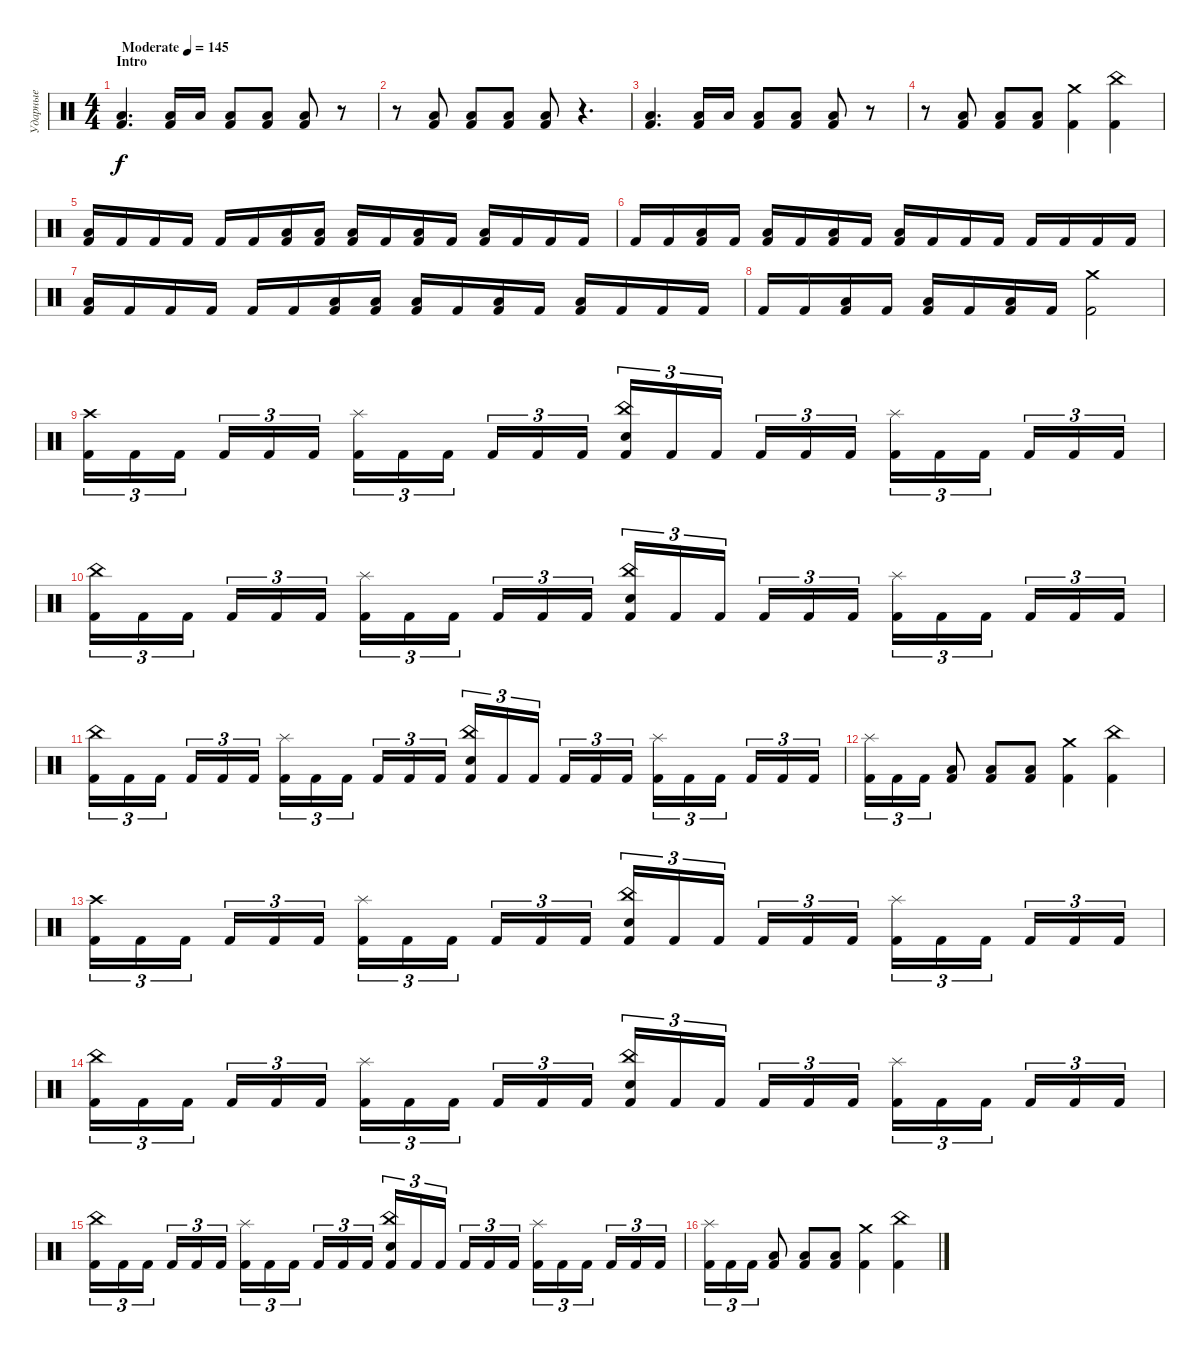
\track ("Ударные" "Ударные") {instrument percussion}
\staff {score}
\articulation defaults
\ts (4 4)
\section ("" "Intro")
\tempo (145 "Moderate")
\clef neutral
\ks c
("Low Tom (hit)" "Kick (hit) 2").4{d dy f} ("Low Tom (hit)" "Kick (hit) 2").16 "Low Tom (hit)".16 ("Low Tom (hit)" "Kick (hit) 2").8 ("Low Tom (hit)" "Kick (hit) 2").8 ("Low Tom (hit)" "Kick (hit) 2").8 r.8 |
r.8 ("Low Tom (hit)" "Kick (hit) 2").8 ("Low Tom (hit)" "Kick (hit) 2").8 ("Low Tom (hit)" "Kick (hit) 2").8 ("Low Tom (hit)" "Kick (hit) 2").8 r.4{d} |
("Low Tom (hit)" "Kick (hit) 2").4{d} ("Low Tom (hit)" "Kick (hit) 2").16 "Low Tom (hit)".16 ("Low Tom (hit)" "Kick (hit) 2").8 ("Low Tom (hit)" "Kick (hit) 2").8 ("Low Tom (hit)" "Kick (hit) 2").8 r.8 |
r.8 ("Low Tom (hit)" "Kick (hit) 2").8 ("Low Tom (hit)" "Kick (hit) 2").8 ("Low Tom (hit)" "Kick (hit) 2").8 ("Crash medium (hit)" "Kick (hit) 2").4 ("China (hit)" "Kick (hit) 2").4 |
("Low Tom (hit)" "Kick (hit) 2").16 "Kick (hit) 2".16 "Kick (hit) 2".16 "Kick (hit) 2".16 "Kick (hit) 2".16 "Kick (hit) 2".16 ("Low Tom (hit)" "Kick (hit) 2").16 ("Low Tom (hit)" "Kick (hit) 2").16 ("Low Tom (hit)" "Kick (hit) 2").16 "Kick (hit) 2".16 ("Low Tom (hit)" "Kick (hit) 2").16 "Kick (hit) 2".16 ("Low Tom (hit)" "Kick (hit) 2").16 "Kick (hit) 2".16 "Kick (hit) 2".16 "Kick (hit) 2".16 |
"Kick (hit) 2".16 "Kick (hit) 2".16 ("Low Tom (hit)" "Kick (hit) 2").16 "Kick (hit) 2".16 ("Low Tom (hit)" "Kick (hit) 2").16 "Kick (hit) 2".16 ("Low Tom (hit)" "Kick (hit) 2").16 "Kick (hit) 2".16 ("Low Tom (hit)" "Kick (hit) 2").16 "Kick (hit) 2".16 "Kick (hit) 2".16 "Kick (hit) 2".16 "Kick (hit) 2".16 "Kick (hit) 2".16 "Kick (hit) 2".16 "Kick (hit) 2".16 |
("Low Tom (hit)" "Kick (hit) 2").16 "Kick (hit) 2".16 "Kick (hit) 2".16 "Kick (hit) 2".16 "Kick (hit) 2".16 "Kick (hit) 2".16 ("Low Tom (hit)" "Kick (hit) 2").16 ("Low Tom (hit)" "Kick (hit) 2").16 ("Low Tom (hit)" "Kick (hit) 2").16 "Kick (hit) 2".16 ("Low Tom (hit)" "Kick (hit) 2").16 "Kick (hit) 2".16 ("Low Tom (hit)" "Kick (hit) 2").16 "Kick (hit) 2".16 "Kick (hit) 2".16 "Kick (hit) 2".16 |
"Kick (hit) 2".16 "Kick (hit) 2".16 ("Low Tom (hit)" "Kick (hit) 2").16 "Kick (hit) 2".16 ("Low Tom (hit)" "Kick (hit) 2").16 "Kick (hit) 2".16 ("Low Tom (hit)" "Kick (hit) 2").16 "Kick (hit) 2".16 ("Crash medium (hit)" "Kick (hit) 2").2 |
("Crash high (hit)" "Kick (hit) 2").16{tu (3 2)} "Kick (hit) 2".16{tu (3 2)} "Kick (hit) 2".16{tu (3 2) beam splitsecondary} "Kick (hit) 2".16{tu (3 2)} "Kick (hit) 2".16{tu (3 2)} "Kick (hit) 2".16{tu (3 2)} ("Splash (hit)" "Kick (hit) 2").16{tu (3 2)} "Kick (hit) 2".16{tu (3 2)} "Kick (hit) 2".16{tu (3 2) beam splitsecondary} "Kick (hit) 2".16{tu (3 2)} "Kick (hit) 2".16{tu (3 2)} "Kick (hit) 2".16{tu (3 2)} ("China (hit)" "Electric Snare (hit)" "Kick (hit) 2").16{tu (3 2)} "Kick (hit) 2".16{tu (3 2)} "Kick (hit) 2".16{tu (3 2) beam splitsecondary} "Kick (hit) 2".16{tu (3 2)} "Kick (hit) 2".16{tu (3 2)} "Kick (hit) 2".16{tu (3 2)} ("Splash (hit)" "Kick (hit) 2").16{tu (3 2)} "Kick (hit) 2".16{tu (3 2)} "Kick (hit) 2".16{tu (3 2) beam splitsecondary} "Kick (hit) 2".16{tu (3 2)} "Kick (hit) 2".16{tu (3 2)} "Kick (hit) 2".16{tu (3 2)} |
("China (hit)" "Kick (hit) 2").16{tu (3 2)} "Kick (hit) 2".16{tu (3 2)} "Kick (hit) 2".16{tu (3 2) beam splitsecondary} "Kick (hit) 2".16{tu (3 2)} "Kick (hit) 2".16{tu (3 2)} "Kick (hit) 2".16{tu (3 2)} ("Splash (hit)" "Kick (hit) 2").16{tu (3 2)} "Kick (hit) 2".16{tu (3 2)} "Kick (hit) 2".16{tu (3 2) beam splitsecondary} "Kick (hit) 2".16{tu (3 2)} "Kick (hit) 2".16{tu (3 2)} "Kick (hit) 2".16{tu (3 2)} ("China (hit)" "Electric Snare (hit)" "Kick (hit) 2").16{tu (3 2)} "Kick (hit) 2".16{tu (3 2)} "Kick (hit) 2".16{tu (3 2) beam splitsecondary} "Kick (hit) 2".16{tu (3 2)} "Kick (hit) 2".16{tu (3 2)} "Kick (hit) 2".16{tu (3 2)} ("Splash (hit)" "Kick (hit) 2").16{tu (3 2)} "Kick (hit) 2".16{tu (3 2)} "Kick (hit) 2".16{tu (3 2) beam splitsecondary} "Kick (hit) 2".16{tu (3 2)} "Kick (hit) 2".16{tu (3 2)} "Kick (hit) 2".16{tu (3 2)} |
("China (hit)" "Kick (hit) 2").16{tu (3 2)} "Kick (hit) 2".16{tu (3 2)} "Kick (hit) 2".16{tu (3 2) beam splitsecondary} "Kick (hit) 2".16{tu (3 2)} "Kick (hit) 2".16{tu (3 2)} "Kick (hit) 2".16{tu (3 2)} ("Splash (hit)" "Kick (hit) 2").16{tu (3 2)} "Kick (hit) 2".16{tu (3 2)} "Kick (hit) 2".16{tu (3 2) beam splitsecondary} "Kick (hit) 2".16{tu (3 2)} "Kick (hit) 2".16{tu (3 2)} "Kick (hit) 2".16{tu (3 2)} ("China (hit)" "Electric Snare (hit)" "Kick (hit) 2").16{tu (3 2)} "Kick (hit) 2".16{tu (3 2)} "Kick (hit) 2".16{tu (3 2) beam splitsecondary} "Kick (hit) 2".16{tu (3 2)} "Kick (hit) 2".16{tu (3 2)} "Kick (hit) 2".16{tu (3 2)} ("Splash (hit)" "Kick (hit) 2").16{tu (3 2)} "Kick (hit) 2".16{tu (3 2)} "Kick (hit) 2".16{tu (3 2) beam splitsecondary} "Kick (hit) 2".16{tu (3 2)} "Kick (hit) 2".16{tu (3 2)} "Kick (hit) 2".16{tu (3 2)} |
("Splash (hit)" "Kick (hit) 2").16{tu (3 2)} "Kick (hit) 2".16{tu (3 2)} "Kick (hit) 2".16{tu (3 2)} ("Low Tom (hit)" "Kick (hit) 2").8 ("Low Tom (hit)" "Kick (hit) 2").8 ("Low Tom (hit)" "Kick (hit) 2").8 ("Crash medium (hit)" "Kick (hit) 2").4 ("China (hit)" "Kick (hit) 2").4 |
("Crash high (hit)" "Kick (hit) 2").16{tu (3 2)} "Kick (hit) 2".16{tu (3 2)} "Kick (hit) 2".16{tu (3 2) beam splitsecondary} "Kick (hit) 2".16{tu (3 2)} "Kick (hit) 2".16{tu (3 2)} "Kick (hit) 2".16{tu (3 2)} ("Splash (hit)" "Kick (hit) 2").16{tu (3 2)} "Kick (hit) 2".16{tu (3 2)} "Kick (hit) 2".16{tu (3 2) beam splitsecondary} "Kick (hit) 2".16{tu (3 2)} "Kick (hit) 2".16{tu (3 2)} "Kick (hit) 2".16{tu (3 2)} ("China (hit)" "Electric Snare (hit)" "Kick (hit) 2").16{tu (3 2)} "Kick (hit) 2".16{tu (3 2)} "Kick (hit) 2".16{tu (3 2) beam splitsecondary} "Kick (hit) 2".16{tu (3 2)} "Kick (hit) 2".16{tu (3 2)} "Kick (hit) 2".16{tu (3 2)} ("Splash (hit)" "Kick (hit) 2").16{tu (3 2)} "Kick (hit) 2".16{tu (3 2)} "Kick (hit) 2".16{tu (3 2) beam splitsecondary} "Kick (hit) 2".16{tu (3 2)} "Kick (hit) 2".16{tu (3 2)} "Kick (hit) 2".16{tu (3 2)} |
("China (hit)" "Kick (hit) 2").16{tu (3 2)} "Kick (hit) 2".16{tu (3 2)} "Kick (hit) 2".16{tu (3 2) beam splitsecondary} "Kick (hit) 2".16{tu (3 2)} "Kick (hit) 2".16{tu (3 2)} "Kick (hit) 2".16{tu (3 2)} ("Splash (hit)" "Kick (hit) 2").16{tu (3 2)} "Kick (hit) 2".16{tu (3 2)} "Kick (hit) 2".16{tu (3 2) beam splitsecondary} "Kick (hit) 2".16{tu (3 2)} "Kick (hit) 2".16{tu (3 2)} "Kick (hit) 2".16{tu (3 2)} ("China (hit)" "Electric Snare (hit)" "Kick (hit) 2").16{tu (3 2)} "Kick (hit) 2".16{tu (3 2)} "Kick (hit) 2".16{tu (3 2) beam splitsecondary} "Kick (hit) 2".16{tu (3 2)} "Kick (hit) 2".16{tu (3 2)} "Kick (hit) 2".16{tu (3 2)} ("Splash (hit)" "Kick (hit) 2").16{tu (3 2)} "Kick (hit) 2".16{tu (3 2)} "Kick (hit) 2".16{tu (3 2) beam splitsecondary} "Kick (hit) 2".16{tu (3 2)} "Kick (hit) 2".16{tu (3 2)} "Kick (hit) 2".16{tu (3 2)} |
("China (hit)" "Kick (hit) 2").16{tu (3 2)} "Kick (hit) 2".16{tu (3 2)} "Kick (hit) 2".16{tu (3 2) beam splitsecondary} "Kick (hit) 2".16{tu (3 2)} "Kick (hit) 2".16{tu (3 2)} "Kick (hit) 2".16{tu (3 2)} ("Splash (hit)" "Kick (hit) 2").16{tu (3 2)} "Kick (hit) 2".16{tu (3 2)} "Kick (hit) 2".16{tu (3 2) beam splitsecondary} "Kick (hit) 2".16{tu (3 2)} "Kick (hit) 2".16{tu (3 2)} "Kick (hit) 2".16{tu (3 2)} ("China (hit)" "Electric Snare (hit)" "Kick (hit) 2").16{tu (3 2)} "Kick (hit) 2".16{tu (3 2)} "Kick (hit) 2".16{tu (3 2) beam splitsecondary} "Kick (hit) 2".16{tu (3 2)} "Kick (hit) 2".16{tu (3 2)} "Kick (hit) 2".16{tu (3 2)} ("Splash (hit)" "Kick (hit) 2").16{tu (3 2)} "Kick (hit) 2".16{tu (3 2)} "Kick (hit) 2".16{tu (3 2) beam splitsecondary} "Kick (hit) 2".16{tu (3 2)} "Kick (hit) 2".16{tu (3 2)} "Kick (hit) 2".16{tu (3 2)} |
("Splash (hit)" "Kick (hit) 2").16{tu (3 2)} "Kick (hit) 2".16{tu (3 2)} "Kick (hit) 2".16{tu (3 2)} ("Low Tom (hit)" "Kick (hit) 2").8 ("Low Tom (hit)" "Kick (hit) 2").8 ("Low Tom (hit)" "Kick (hit) 2").8 ("Crash medium (hit)" "Kick (hit) 2").4 ("China (hit)" "Kick (hit) 2").4
